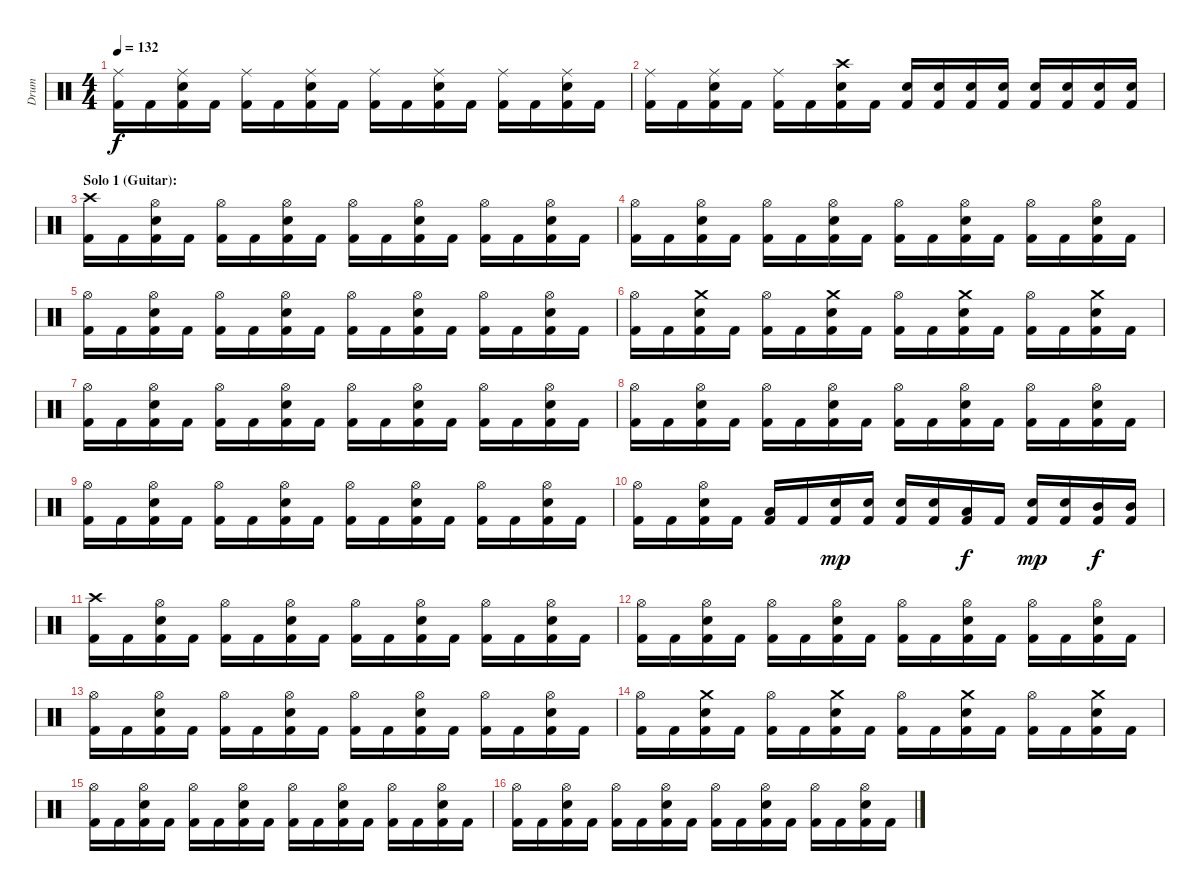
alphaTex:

\track ("Drum" "Drum") {instrument percussion}
\staff {score}
\articulation defaults
\ts (4 4)
\tempo 132
\clef neutral
\ks c
("Kick (hit) 2" "Ride (middle)").16{dy f} "Kick (hit) 2".16 ("Kick (hit) 2" "Snare (hit) 2" "Ride (middle)").16 "Kick (hit) 2".16 ("Kick (hit) 2" "Ride (middle)").16 "Kick (hit) 2".16 ("Kick (hit) 2" "Snare (hit) 2" "Ride (middle)").16 "Kick (hit) 2".16 ("Kick (hit) 2" "Ride (middle)").16 "Kick (hit) 2".16 ("Kick (hit) 2" "Snare (hit) 2" "Ride (middle)").16 "Kick (hit) 2".16 ("Kick (hit) 2" "Ride (middle)").16 "Kick (hit) 2".16 ("Kick (hit) 2" "Snare (hit) 2" "Ride (middle)").16 "Kick (hit) 2".16 |
("Kick (hit) 2" "Ride (middle)").16 "Kick (hit) 2".16 ("Kick (hit) 2" "Snare (hit) 2" "Ride (middle)").16 "Kick (hit) 2".16 ("Kick (hit) 2" "Ride (middle)").16 "Kick (hit) 2".16 ("Kick (hit) 2" "Snare (hit) 2" "Crash high (hit)").16 "Kick (hit) 2".16 ("Kick (hit) 2" "Snare (hit) 2").16 ("Kick (hit) 2" "Snare (hit) 2").16 ("Kick (hit) 2" "Snare (hit) 2").16 ("Kick (hit) 2" "Snare (hit) 2").16 ("Kick (hit) 2" "Snare (hit) 2").16 ("Kick (hit) 2" "Snare (hit) 2").16 ("Kick (hit) 2" "Snare (hit) 2").16 ("Kick (hit) 2" "Snare (hit) 2").16 |
\section ("" "Solo 1 (Guitar):")
("Kick (hit) 2" "Crash high (hit)").16 "Kick (hit) 2".16 ("Kick (hit) 2" "Snare (hit) 2" "Hi-Hat (open)").16 "Kick (hit) 2".16 ("Kick (hit) 2" "Hi-Hat (open)").16 "Kick (hit) 2".16 ("Kick (hit) 2" "Snare (hit) 2" "Hi-Hat (open)").16 "Kick (hit) 2".16 ("Kick (hit) 2" "Hi-Hat (open)").16 "Kick (hit) 2".16 ("Kick (hit) 2" "Snare (hit) 2" "Hi-Hat (open)").16 "Kick (hit) 2".16 ("Kick (hit) 2" "Hi-Hat (open)").16 "Kick (hit) 2".16 ("Kick (hit) 2" "Snare (hit) 2" "Hi-Hat (open)").16 "Kick (hit) 2".16 |
("Kick (hit) 2" "Hi-Hat (open)").16 "Kick (hit) 2".16 ("Kick (hit) 2" "Snare (hit) 2" "Hi-Hat (open)").16 "Kick (hit) 2".16 ("Kick (hit) 2" "Hi-Hat (open)").16 "Kick (hit) 2".16 ("Kick (hit) 2" "Snare (hit) 2" "Hi-Hat (open)").16 "Kick (hit) 2".16 ("Kick (hit) 2" "Hi-Hat (open)").16 "Kick (hit) 2".16 ("Kick (hit) 2" "Snare (hit) 2" "Hi-Hat (open)").16 "Kick (hit) 2".16 ("Kick (hit) 2" "Hi-Hat (open)").16 "Kick (hit) 2".16 ("Kick (hit) 2" "Snare (hit) 2" "Hi-Hat (open)").16 "Kick (hit) 2".16 |
("Kick (hit) 2" "Hi-Hat (open)").16 "Kick (hit) 2".16 ("Kick (hit) 2" "Snare (hit) 2" "Hi-Hat (open)").16 "Kick (hit) 2".16 ("Kick (hit) 2" "Hi-Hat (open)").16 "Kick (hit) 2".16 ("Kick (hit) 2" "Snare (hit) 2" "Hi-Hat (open)").16 "Kick (hit) 2".16 ("Kick (hit) 2" "Hi-Hat (open)").16 "Kick (hit) 2".16 ("Kick (hit) 2" "Snare (hit) 2" "Hi-Hat (open)").16 "Kick (hit) 2".16 ("Kick (hit) 2" "Hi-Hat (open)").16 "Kick (hit) 2".16 ("Kick (hit) 2" "Snare (hit) 2" "Hi-Hat (open)").16 "Kick (hit) 2".16 |
("Kick (hit) 2" "Hi-Hat (open)").16 "Kick (hit) 2".16 ("Kick (hit) 2" "Snare (hit) 2" "Crash medium (hit)").16 "Kick (hit) 2".16 ("Kick (hit) 2" "Hi-Hat (open)").16 "Kick (hit) 2".16 ("Kick (hit) 2" "Snare (hit) 2" "Crash medium (hit)").16 "Kick (hit) 2".16 ("Kick (hit) 2" "Hi-Hat (open)").16 "Kick (hit) 2".16 ("Kick (hit) 2" "Snare (hit) 2" "Crash medium (hit)").16 "Kick (hit) 2".16 ("Kick (hit) 2" "Hi-Hat (open)").16 "Kick (hit) 2".16 ("Kick (hit) 2" "Snare (hit) 2" "Crash medium (hit)").16 "Kick (hit) 2".16 |
("Kick (hit) 2" "Hi-Hat (open)").16 "Kick (hit) 2".16 ("Kick (hit) 2" "Snare (hit) 2" "Hi-Hat (open)").16 "Kick (hit) 2".16 ("Kick (hit) 2" "Hi-Hat (open)").16 "Kick (hit) 2".16 ("Kick (hit) 2" "Snare (hit) 2" "Hi-Hat (open)").16 "Kick (hit) 2".16 ("Kick (hit) 2" "Hi-Hat (open)").16 "Kick (hit) 2".16 ("Kick (hit) 2" "Snare (hit) 2" "Hi-Hat (open)").16 "Kick (hit) 2".16 ("Kick (hit) 2" "Hi-Hat (open)").16 "Kick (hit) 2".16 ("Kick (hit) 2" "Snare (hit) 2" "Hi-Hat (open)").16 "Kick (hit) 2".16 |
("Kick (hit) 2" "Hi-Hat (open)").16 "Kick (hit) 2".16 ("Kick (hit) 2" "Snare (hit) 2" "Hi-Hat (open)").16 "Kick (hit) 2".16 ("Kick (hit) 2" "Hi-Hat (open)").16 "Kick (hit) 2".16 ("Kick (hit) 2" "Snare (hit) 2" "Hi-Hat (open)").16 "Kick (hit) 2".16 ("Kick (hit) 2" "Hi-Hat (open)").16 "Kick (hit) 2".16 ("Kick (hit) 2" "Snare (hit) 2" "Hi-Hat (open)").16 "Kick (hit) 2".16 ("Kick (hit) 2" "Hi-Hat (open)").16 "Kick (hit) 2".16 ("Kick (hit) 2" "Snare (hit) 2" "Hi-Hat (open)").16 "Kick (hit) 2".16 |
("Kick (hit) 2" "Hi-Hat (open)").16 "Kick (hit) 2".16 ("Kick (hit) 2" "Snare (hit) 2" "Hi-Hat (open)").16 "Kick (hit) 2".16 ("Kick (hit) 2" "Hi-Hat (open)").16 "Kick (hit) 2".16 ("Kick (hit) 2" "Snare (hit) 2" "Hi-Hat (open)").16 "Kick (hit) 2".16 ("Kick (hit) 2" "Hi-Hat (open)").16 "Kick (hit) 2".16 ("Kick (hit) 2" "Snare (hit) 2" "Hi-Hat (open)").16 "Kick (hit) 2".16 ("Kick (hit) 2" "Hi-Hat (open)").16 "Kick (hit) 2".16 ("Kick (hit) 2" "Snare (hit) 2" "Hi-Hat (open)").16 "Kick (hit) 2".16 |
("Kick (hit) 2" "Hi-Hat (open)").16 "Kick (hit) 2".16 ("Kick (hit) 2" "Snare (hit) 2" "Hi-Hat (open)").16 "Kick (hit) 2".16 ("Kick (hit) 2" "Low Tom (hit)").16 "Kick (hit) 2".16 ("Kick (hit) 2" "Snare (hit) 2").16{dy mp} ("Kick (hit) 2" "Snare (hit) 2").16 ("Kick (hit) 2" "Snare (hit) 2").16 ("Kick (hit) 2" "Snare (hit) 2").16 ("Kick (hit) 2" "Low Tom (hit)").16{dy f} "Kick (hit) 2".16 ("Kick (hit) 2" "Snare (hit) 2").16{dy mp} ("Kick (hit) 2" "Snare (hit) 2").16 ("Kick (hit) 2" "Mid Tom (hit)").16{dy f} ("Kick (hit) 2" "Mid Tom (hit)").16 |
("Kick (hit) 2" "Crash high (hit)").16 "Kick (hit) 2".16 ("Kick (hit) 2" "Snare (hit) 2" "Hi-Hat (open)").16 "Kick (hit) 2".16 ("Kick (hit) 2" "Hi-Hat (open)").16 "Kick (hit) 2".16 ("Kick (hit) 2" "Snare (hit) 2" "Hi-Hat (open)").16 "Kick (hit) 2".16 ("Kick (hit) 2" "Hi-Hat (open)").16 "Kick (hit) 2".16 ("Kick (hit) 2" "Snare (hit) 2" "Hi-Hat (open)").16 "Kick (hit) 2".16 ("Kick (hit) 2" "Hi-Hat (open)").16 "Kick (hit) 2".16 ("Kick (hit) 2" "Snare (hit) 2" "Hi-Hat (open)").16 "Kick (hit) 2".16 |
("Kick (hit) 2" "Hi-Hat (open)").16 "Kick (hit) 2".16 ("Kick (hit) 2" "Snare (hit) 2" "Hi-Hat (open)").16 "Kick (hit) 2".16 ("Kick (hit) 2" "Hi-Hat (open)").16 "Kick (hit) 2".16 ("Kick (hit) 2" "Snare (hit) 2" "Hi-Hat (open)").16 "Kick (hit) 2".16 ("Kick (hit) 2" "Hi-Hat (open)").16 "Kick (hit) 2".16 ("Kick (hit) 2" "Snare (hit) 2" "Hi-Hat (open)").16 "Kick (hit) 2".16 ("Kick (hit) 2" "Hi-Hat (open)").16 "Kick (hit) 2".16 ("Kick (hit) 2" "Snare (hit) 2" "Hi-Hat (open)").16 "Kick (hit) 2".16 |
("Kick (hit) 2" "Hi-Hat (open)").16 "Kick (hit) 2".16 ("Kick (hit) 2" "Snare (hit) 2" "Hi-Hat (open)").16 "Kick (hit) 2".16 ("Kick (hit) 2" "Hi-Hat (open)").16 "Kick (hit) 2".16 ("Kick (hit) 2" "Snare (hit) 2" "Hi-Hat (open)").16 "Kick (hit) 2".16 ("Kick (hit) 2" "Hi-Hat (open)").16 "Kick (hit) 2".16 ("Kick (hit) 2" "Snare (hit) 2" "Hi-Hat (open)").16 "Kick (hit) 2".16 ("Kick (hit) 2" "Hi-Hat (open)").16 "Kick (hit) 2".16 ("Kick (hit) 2" "Snare (hit) 2" "Hi-Hat (open)").16 "Kick (hit) 2".16 |
("Kick (hit) 2" "Hi-Hat (open)").16 "Kick (hit) 2".16 ("Kick (hit) 2" "Snare (hit) 2" "Crash medium (hit)").16 "Kick (hit) 2".16 ("Kick (hit) 2" "Hi-Hat (open)").16 "Kick (hit) 2".16 ("Kick (hit) 2" "Snare (hit) 2" "Crash medium (hit)").16 "Kick (hit) 2".16 ("Kick (hit) 2" "Hi-Hat (open)").16 "Kick (hit) 2".16 ("Kick (hit) 2" "Snare (hit) 2" "Crash medium (hit)").16 "Kick (hit) 2".16 ("Kick (hit) 2" "Hi-Hat (open)").16 "Kick (hit) 2".16 ("Kick (hit) 2" "Snare (hit) 2" "Crash medium (hit)").16 "Kick (hit) 2".16 |
("Kick (hit) 2" "Hi-Hat (open)").16 "Kick (hit) 2".16 ("Kick (hit) 2" "Snare (hit) 2" "Hi-Hat (open)").16 "Kick (hit) 2".16 ("Kick (hit) 2" "Hi-Hat (open)").16 "Kick (hit) 2".16 ("Kick (hit) 2" "Snare (hit) 2" "Hi-Hat (open)").16 "Kick (hit) 2".16 ("Kick (hit) 2" "Hi-Hat (open)").16 "Kick (hit) 2".16 ("Kick (hit) 2" "Snare (hit) 2" "Hi-Hat (open)").16 "Kick (hit) 2".16 ("Kick (hit) 2" "Hi-Hat (open)").16 "Kick (hit) 2".16 ("Kick (hit) 2" "Snare (hit) 2" "Hi-Hat (open)").16 "Kick (hit) 2".16 |
("Kick (hit) 2" "Hi-Hat (open)").16 "Kick (hit) 2".16 ("Kick (hit) 2" "Snare (hit) 2" "Hi-Hat (open)").16 "Kick (hit) 2".16 ("Kick (hit) 2" "Hi-Hat (open)").16 "Kick (hit) 2".16 ("Kick (hit) 2" "Snare (hit) 2" "Hi-Hat (open)").16 "Kick (hit) 2".16 ("Kick (hit) 2" "Hi-Hat (open)").16 "Kick (hit) 2".16 ("Kick (hit) 2" "Snare (hit) 2" "Hi-Hat (open)").16 "Kick (hit) 2".16 ("Kick (hit) 2" "Hi-Hat (open)").16 "Kick (hit) 2".16 ("Kick (hit) 2" "Snare (hit) 2" "Hi-Hat (open)").16 "Kick (hit) 2".16
